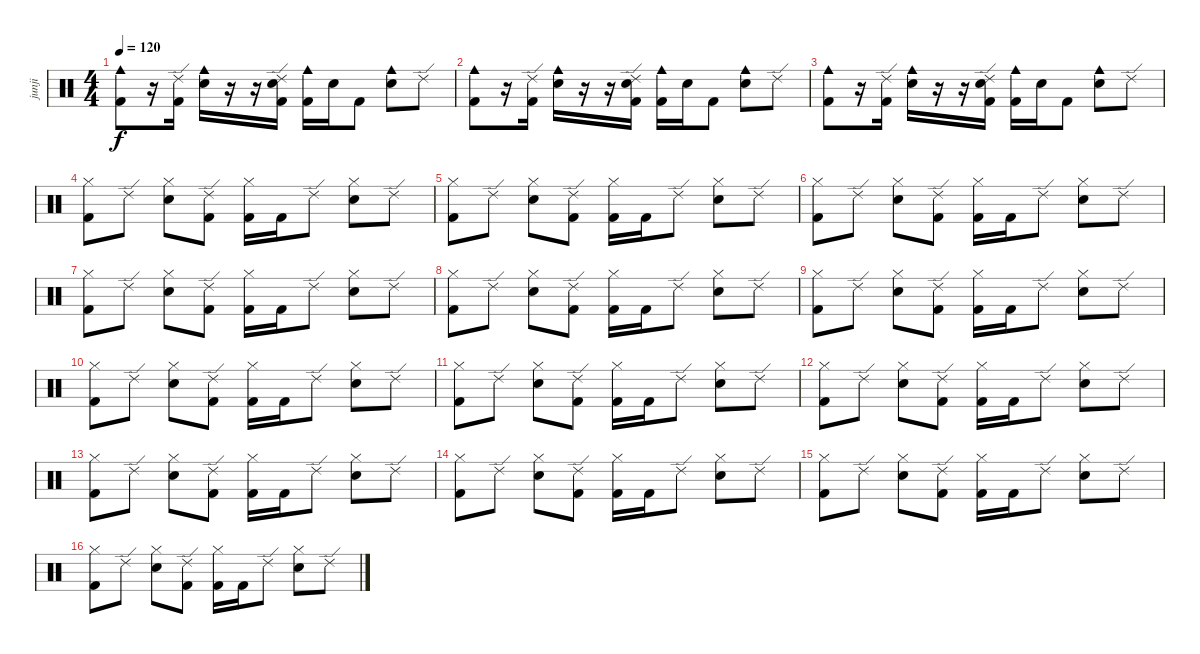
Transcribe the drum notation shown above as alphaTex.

\track ("junji" "junji") {instrument percussion}
\staff {score}
\articulation defaults
\ts (4 4)
\tempo 120
\clef neutral
\ks c
("Cowbell medium (hit)" "Kick (hit) 2").8{dy f} r.16 ("Ride (edge) 2"{x} "Kick (hit) 2").16 ("Cowbell medium (hit)" "Snare (hit) 2").16 r.16 r.16 ("Ride (edge) 2"{x} "Snare (hit) 2" "Kick (hit) 2"{x}).16 ("Cowbell medium (hit)" "Kick (hit) 2"{x}).16 "Snare (hit) 2".16 "Kick (hit) 2".8 ("Cowbell medium (hit)" "Snare (hit) 2").8 "Ride (edge) 2".8 |
("Cowbell medium (hit)" "Kick (hit) 2").8 r.16 ("Ride (edge) 2"{x} "Kick (hit) 2").16 ("Cowbell medium (hit)" "Snare (hit) 2").16 r.16 r.16 ("Ride (edge) 2"{x} "Snare (hit) 2" "Kick (hit) 2"{x}).16 ("Cowbell medium (hit)" "Kick (hit) 2"{x}).16 "Snare (hit) 2".16 "Kick (hit) 2".8 ("Cowbell medium (hit)" "Snare (hit) 2").8 "Ride (edge) 2".8 |
("Cowbell medium (hit)" "Kick (hit) 2").8 r.16 ("Ride (edge) 2"{x} "Kick (hit) 2").16 ("Cowbell medium (hit)" "Snare (hit) 2").16 r.16 r.16 ("Ride (edge) 2"{x} "Snare (hit) 2" "Kick (hit) 2"{x}).16 ("Cowbell medium (hit)" "Kick (hit) 2"{x}).16 "Snare (hit) 2".16 "Kick (hit) 2".8 ("Cowbell medium (hit)" "Snare (hit) 2").8 "Ride (edge) 2".8 |
("Hi-Hat (closed)" "Kick (hit) 2").8 "Ride (edge) 2".8 ("Hi-Hat (closed)" "Snare (hit) 2").8 ("Ride (edge) 2" "Kick (hit) 2").8 ("Hi-Hat (closed)" "Kick (hit) 2"{x}).16 "Kick (hit) 2".16 "Ride (edge) 2".8 ("Hi-Hat (closed)" "Snare (hit) 2").8 "Ride (edge) 2".8 |
("Hi-Hat (closed)" "Kick (hit) 2").8 "Ride (edge) 2".8 ("Hi-Hat (closed)" "Snare (hit) 2").8 ("Ride (edge) 2" "Kick (hit) 2").8 ("Hi-Hat (closed)" "Kick (hit) 2"{x}).16 "Kick (hit) 2".16 "Ride (edge) 2".8 ("Hi-Hat (closed)" "Snare (hit) 2").8 "Ride (edge) 2".8 |
("Hi-Hat (closed)" "Kick (hit) 2").8 "Ride (edge) 2".8 ("Hi-Hat (closed)" "Snare (hit) 2").8 ("Ride (edge) 2" "Kick (hit) 2").8 ("Hi-Hat (closed)" "Kick (hit) 2"{x}).16 "Kick (hit) 2".16 "Ride (edge) 2".8 ("Hi-Hat (closed)" "Snare (hit) 2").8 "Ride (edge) 2".8 |
("Hi-Hat (closed)" "Kick (hit) 2").8 "Ride (edge) 2".8 ("Hi-Hat (closed)" "Snare (hit) 2").8 ("Ride (edge) 2" "Kick (hit) 2").8 ("Hi-Hat (closed)" "Kick (hit) 2"{x}).16 "Kick (hit) 2".16 "Ride (edge) 2".8 ("Hi-Hat (closed)" "Snare (hit) 2").8 "Ride (edge) 2".8 |
("Hi-Hat (closed)" "Kick (hit) 2").8 "Ride (edge) 2".8 ("Hi-Hat (closed)" "Snare (hit) 2").8 ("Ride (edge) 2" "Kick (hit) 2").8 ("Hi-Hat (closed)" "Kick (hit) 2"{x}).16 "Kick (hit) 2".16 "Ride (edge) 2".8 ("Hi-Hat (closed)" "Snare (hit) 2").8 "Ride (edge) 2".8 |
("Hi-Hat (closed)" "Kick (hit) 2").8 "Ride (edge) 2".8 ("Hi-Hat (closed)" "Snare (hit) 2").8 ("Ride (edge) 2" "Kick (hit) 2").8 ("Hi-Hat (closed)" "Kick (hit) 2"{x}).16 "Kick (hit) 2".16 "Ride (edge) 2".8 ("Hi-Hat (closed)" "Snare (hit) 2").8 "Ride (edge) 2".8 |
("Hi-Hat (closed)" "Kick (hit) 2").8 "Ride (edge) 2".8 ("Hi-Hat (closed)" "Snare (hit) 2").8 ("Ride (edge) 2" "Kick (hit) 2").8 ("Hi-Hat (closed)" "Kick (hit) 2"{x}).16 "Kick (hit) 2".16 "Ride (edge) 2".8 ("Hi-Hat (closed)" "Snare (hit) 2").8 "Ride (edge) 2".8 |
("Hi-Hat (closed)" "Kick (hit) 2").8 "Ride (edge) 2".8 ("Hi-Hat (closed)" "Snare (hit) 2").8 ("Ride (edge) 2" "Kick (hit) 2").8 ("Hi-Hat (closed)" "Kick (hit) 2"{x}).16 "Kick (hit) 2".16 "Ride (edge) 2".8 ("Hi-Hat (closed)" "Snare (hit) 2").8 "Ride (edge) 2".8 |
("Hi-Hat (closed)" "Kick (hit) 2").8 "Ride (edge) 2".8 ("Hi-Hat (closed)" "Snare (hit) 2").8 ("Ride (edge) 2" "Kick (hit) 2").8 ("Hi-Hat (closed)" "Kick (hit) 2"{x}).16 "Kick (hit) 2".16 "Ride (edge) 2".8 ("Hi-Hat (closed)" "Snare (hit) 2").8 "Ride (edge) 2".8 |
("Hi-Hat (closed)" "Kick (hit) 2").8 "Ride (edge) 2".8 ("Hi-Hat (closed)" "Snare (hit) 2").8 ("Ride (edge) 2" "Kick (hit) 2").8 ("Hi-Hat (closed)" "Kick (hit) 2"{x}).16 "Kick (hit) 2".16 "Ride (edge) 2".8 ("Hi-Hat (closed)" "Snare (hit) 2").8 "Ride (edge) 2".8 |
("Hi-Hat (closed)" "Kick (hit) 2").8 "Ride (edge) 2".8 ("Hi-Hat (closed)" "Snare (hit) 2").8 ("Ride (edge) 2" "Kick (hit) 2").8 ("Hi-Hat (closed)" "Kick (hit) 2"{x}).16 "Kick (hit) 2".16 "Ride (edge) 2".8 ("Hi-Hat (closed)" "Snare (hit) 2").8 "Ride (edge) 2".8 |
("Hi-Hat (closed)" "Kick (hit) 2").8 "Ride (edge) 2".8 ("Hi-Hat (closed)" "Snare (hit) 2").8 ("Ride (edge) 2" "Kick (hit) 2").8 ("Hi-Hat (closed)" "Kick (hit) 2"{x}).16 "Kick (hit) 2".16 "Ride (edge) 2".8 ("Hi-Hat (closed)" "Snare (hit) 2").8 "Ride (edge) 2".8 |
("Hi-Hat (closed)" "Kick (hit) 2").8 "Ride (edge) 2".8 ("Hi-Hat (closed)" "Snare (hit) 2").8 ("Ride (edge) 2" "Kick (hit) 2").8 ("Hi-Hat (closed)" "Kick (hit) 2"{x}).16 "Kick (hit) 2".16 "Ride (edge) 2".8 ("Hi-Hat (closed)" "Snare (hit) 2").8 "Ride (edge) 2".8
